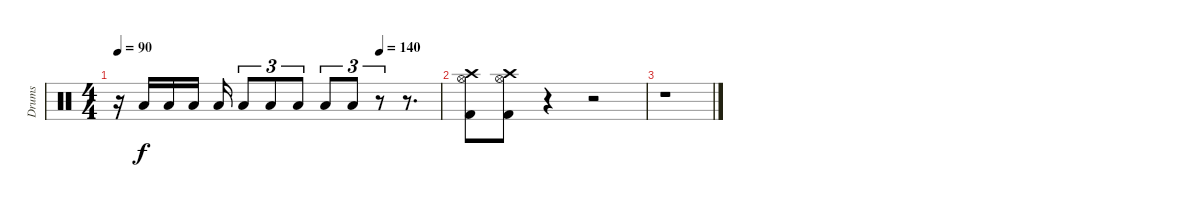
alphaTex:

\track ("Drums" "Drums") {instrument percussion}
\staff {score}
\articulation defaults
\ts (4 4)
\tempo 90
\tempo (140 0.8125)
\clef neutral
\ks c
r.16{dy f} "Low Tom (hit)".16 "Low Tom (hit)".16 "Low Tom (hit)".16 "Low Tom (hit)".16 "Low Floor Tom (hit)".8{tu (3 2)} "Low Floor Tom (hit)".8{tu (3 2)} "Low Floor Tom (hit)".8{tu (3 2)} "Low Floor Tom (hit)".8{tu (3 2)} "Low Floor Tom (hit)".8{tu (3 2)} r.8{tu (3 2)} r.8{d} |
("Hi-Hat (open)" "Crash high (hit)" "Kick (hit) 2").8 ("Hi-Hat (open)" "Crash high (hit)" "Kick (hit) 2").8 r.4 r.2 |
r.1
